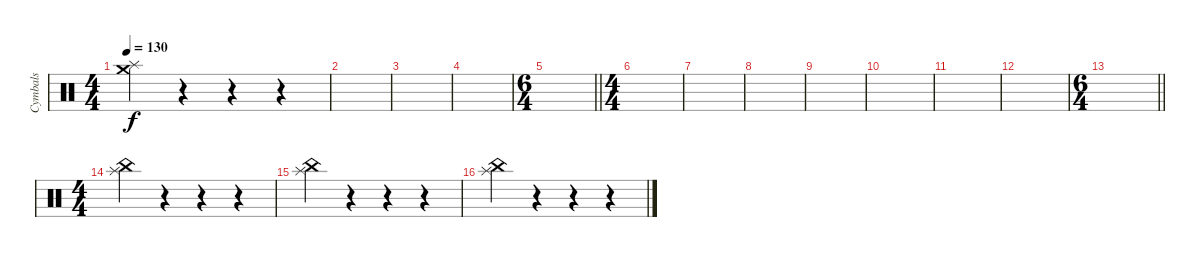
\track ("Cymbals" "Cymbals") {instrument percussion}
\staff {score}
\articulation defaults
\ts (4 4)
\tempo 130
\clef neutral
\ks c
("Crash medium (hit)" "Splash (hit)").4{dy f} r.4 r.4 r.4 |
|
|
|
\ts (6 4)
\barLineRight lightlight
|
\ts (4 4)
\section ("" "")
|
|
|
|
|
|
|
\ts (6 4)
\barLineRight lightlight
|
\ts (4 4)
\section ("" "")
("China (hit)" "Splash (hit)").4 r.4 r.4 r.4 |
("China (hit)" "Splash (hit)").4 r.4 r.4 r.4 |
("China (hit)" "Splash (hit)").4 r.4 r.4 r.4
